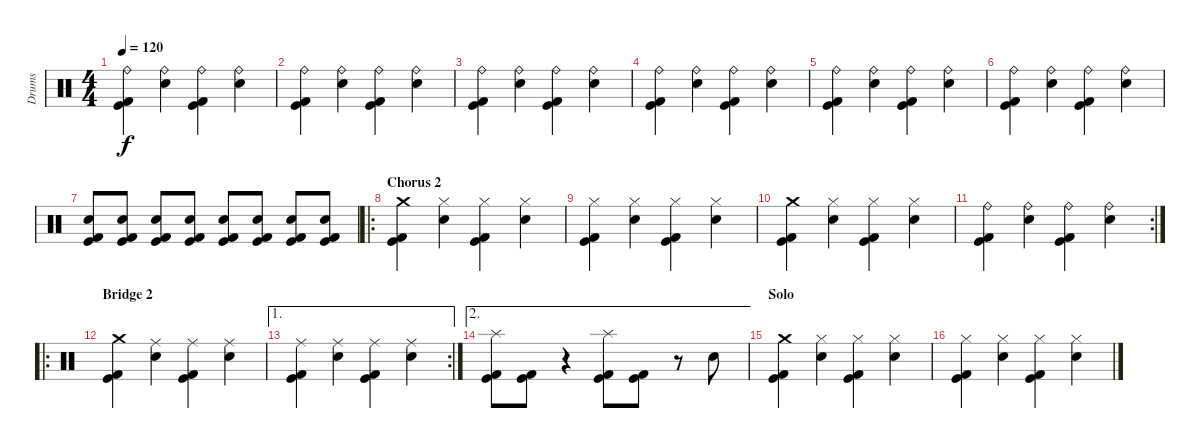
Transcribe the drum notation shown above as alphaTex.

\track ("Drums" "Drums") {instrument percussion}
\staff {score}
\articulation defaults
\ts (4 4)
\tempo 120
\clef neutral
\ks c
("Kick (hit)" "Kick (hit) 2" "Ride (bell)").4{dy f} ("Snare (hit) 2" "Ride (bell)").4 ("Kick (hit)" "Kick (hit) 2" "Ride (bell)").4 ("Snare (hit) 2" "Ride (bell)").4 |
("Kick (hit)" "Kick (hit) 2" "Ride (bell)").4 ("Snare (hit) 2" "Ride (bell)").4 ("Kick (hit)" "Kick (hit) 2" "Ride (bell)").4 ("Snare (hit) 2" "Ride (bell)").4 |
("Kick (hit)" "Kick (hit) 2" "Ride (bell)").4 ("Snare (hit) 2" "Ride (bell)").4 ("Kick (hit)" "Kick (hit) 2" "Ride (bell)").4 ("Snare (hit) 2" "Ride (bell)").4 |
("Kick (hit)" "Kick (hit) 2" "Ride (bell)").4 ("Snare (hit) 2" "Ride (bell)").4 ("Kick (hit)" "Kick (hit) 2" "Ride (bell)").4 ("Snare (hit) 2" "Ride (bell)").4 |
("Kick (hit)" "Kick (hit) 2" "Ride (bell)").4 ("Snare (hit) 2" "Ride (bell)").4 ("Kick (hit)" "Kick (hit) 2" "Ride (bell)").4 ("Snare (hit) 2" "Ride (bell)").4 |
("Kick (hit)" "Kick (hit) 2" "Ride (bell)").4 ("Snare (hit) 2" "Ride (bell)").4 ("Kick (hit)" "Kick (hit) 2" "Ride (bell)").4 ("Snare (hit) 2" "Ride (bell)").4 |
("Kick (hit)" "Kick (hit) 2" "Snare (hit) 2").8 ("Kick (hit)" "Kick (hit) 2" "Snare (hit) 2").8 ("Kick (hit)" "Kick (hit) 2" "Snare (hit) 2").8 ("Kick (hit)" "Kick (hit) 2" "Snare (hit) 2").8 ("Kick (hit)" "Kick (hit) 2" "Snare (hit) 2").8 ("Kick (hit)" "Kick (hit) 2" "Snare (hit) 2").8 ("Kick (hit)" "Kick (hit) 2" "Snare (hit) 2").8 ("Kick (hit)" "Kick (hit) 2" "Snare (hit) 2").8 |
\ro
\section ("" "Chorus 2")
("Kick (hit)" "Kick (hit) 2" "Crash medium (hit)").4 ("Snare (hit) 2" "Hi-Hat (closed)").4 ("Kick (hit)" "Kick (hit) 2" "Hi-Hat (closed)").4 ("Snare (hit) 2" "Hi-Hat (closed)").4 |
("Kick (hit)" "Kick (hit) 2" "Hi-Hat (closed)").4 ("Snare (hit) 2" "Hi-Hat (closed)").4 ("Kick (hit)" "Kick (hit) 2" "Hi-Hat (closed)").4 ("Snare (hit) 2" "Hi-Hat (closed)").4 |
("Kick (hit)" "Kick (hit) 2" "Crash medium (hit)").4 ("Snare (hit) 2" "Hi-Hat (closed)").4 ("Kick (hit)" "Kick (hit) 2" "Hi-Hat (closed)").4 ("Snare (hit) 2" "Hi-Hat (closed)").4 |
\rc 2
("Kick (hit)" "Kick (hit) 2" "Ride (bell)").4 ("Snare (hit) 2" "Ride (bell)").4 ("Kick (hit)" "Kick (hit) 2" "Ride (bell)").4 ("Snare (hit) 2" "Ride (bell)").4 |
\ro
\section ("" "Bridge 2")
("Kick (hit)" "Kick (hit) 2" "Crash medium (hit)").4 ("Snare (hit) 2" "Ride (middle)").4 ("Kick (hit)" "Kick (hit) 2" "Ride (middle)").4 ("Snare (hit) 2" "Ride (middle)").4 |
\ae 1
\rc 2
("Kick (hit)" "Kick (hit) 2" "Ride (middle)").4 ("Snare (hit) 2" "Ride (middle)").4 ("Kick (hit)" "Kick (hit) 2" "Ride (middle)").4 ("Snare (hit) 2" "Ride (middle)").4 |
\ae 2
("Kick (hit)" "Kick (hit) 2" "Splash (hit)").8 ("Kick (hit)" "Kick (hit) 2").8 r.4 ("Kick (hit)" "Kick (hit) 2" "Splash (hit)").8 ("Kick (hit)" "Kick (hit) 2").8 r.8 "Snare (hit) 2".8 |
\section ("" "Solo")
("Kick (hit)" "Kick (hit) 2" "Crash medium (hit)").4 ("Snare (hit) 2" "Hi-Hat (closed)").4 ("Kick (hit)" "Kick (hit) 2" "Hi-Hat (closed)").4 ("Snare (hit) 2" "Hi-Hat (closed)").4 |
("Kick (hit)" "Kick (hit) 2" "Hi-Hat (closed)").4 ("Snare (hit) 2" "Hi-Hat (closed)").4 ("Kick (hit)" "Kick (hit) 2" "Hi-Hat (closed)").4 ("Snare (hit) 2" "Hi-Hat (closed)").4
